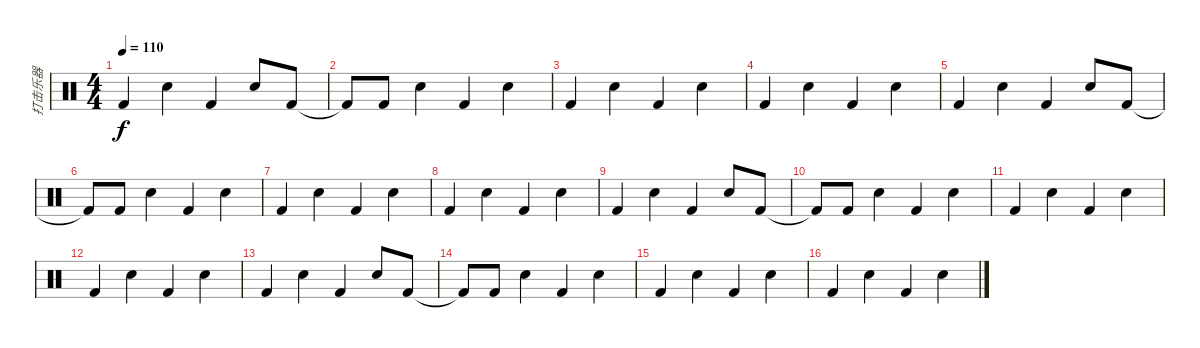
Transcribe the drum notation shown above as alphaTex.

\track ("打击乐器" "打击乐器") {instrument percussion}
\staff {score}
\articulation defaults
\ts (4 4)
\tempo 110
\clef neutral
\ks c "Kick (hit) 2".4{dy f} "Snare (hit) 2".4 "Kick (hit) 2".4 "Snare (hit) 2".8 "Kick (hit) 2".8
|
"Kick (hit) 2"{t}.8 "Kick (hit) 2".8 "Snare (hit) 2".4 "Kick (hit) 2".4 "Snare (hit) 2".4 |
"Kick (hit) 2".4 "Snare (hit) 2".4 "Kick (hit) 2".4 "Snare (hit) 2".4 |
"Kick (hit) 2".4 "Snare (hit) 2".4 "Kick (hit) 2".4 "Snare (hit) 2".4 |
"Kick (hit) 2".4 "Snare (hit) 2".4 "Kick (hit) 2".4 "Snare (hit) 2".8 "Kick (hit) 2".8 |
"Kick (hit) 2"{t}.8 "Kick (hit) 2".8 "Snare (hit) 2".4 "Kick (hit) 2".4 "Snare (hit) 2".4 |
"Kick (hit) 2".4 "Snare (hit) 2".4 "Kick (hit) 2".4 "Snare (hit) 2".4 |
"Kick (hit) 2".4 "Snare (hit) 2".4 "Kick (hit) 2".4 "Snare (hit) 2".4 |
"Kick (hit) 2".4 "Snare (hit) 2".4 "Kick (hit) 2".4 "Snare (hit) 2".8 "Kick (hit) 2".8 |
"Kick (hit) 2"{t}.8 "Kick (hit) 2".8 "Snare (hit) 2".4 "Kick (hit) 2".4 "Snare (hit) 2".4 |
"Kick (hit) 2".4 "Snare (hit) 2".4 "Kick (hit) 2".4 "Snare (hit) 2".4 |
"Kick (hit) 2".4 "Snare (hit) 2".4 "Kick (hit) 2".4 "Snare (hit) 2".4 |
"Kick (hit) 2".4 "Snare (hit) 2".4 "Kick (hit) 2".4 "Snare (hit) 2".8 "Kick (hit) 2".8 |
"Kick (hit) 2"{t}.8 "Kick (hit) 2".8 "Snare (hit) 2".4 "Kick (hit) 2".4 "Snare (hit) 2".4 |
"Kick (hit) 2".4 "Snare (hit) 2".4 "Kick (hit) 2".4 "Snare (hit) 2".4 |
"Kick (hit) 2".4 "Snare (hit) 2".4 "Kick (hit) 2".4 "Snare (hit) 2".4
